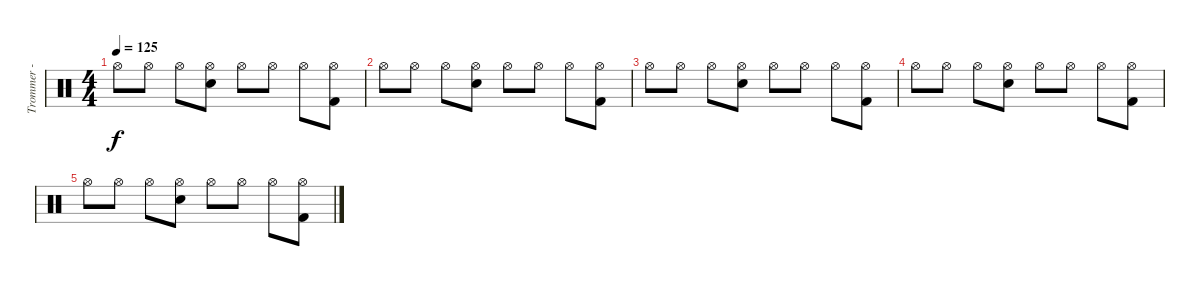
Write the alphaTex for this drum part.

\track ("Trommer - Alex" "Trommer - ") {instrument percussion}
\staff {score}
\articulation defaults
\ts (4 4)
\tempo 125
\clef neutral
\ks c "Hi-Hat (open)".8{dy f} "Hi-Hat (open)".8 "Hi-Hat (open)".8
("Hi-Hat (open)" "Snare (hit) 2").8 "Hi-Hat (open)".8 "Hi-Hat (open)".8 "Hi-Hat (open)".8 ("Hi-Hat (open)" "Kick (hit) 2").8 |
"Hi-Hat (open)".8 "Hi-Hat (open)".8 "Hi-Hat (open)".8 ("Hi-Hat (open)" "Snare (hit) 2").8 "Hi-Hat (open)".8 "Hi-Hat (open)".8 "Hi-Hat (open)".8 ("Hi-Hat (open)" "Kick (hit) 2").8 |
"Hi-Hat (open)".8 "Hi-Hat (open)".8 "Hi-Hat (open)".8 ("Hi-Hat (open)" "Snare (hit) 2").8 "Hi-Hat (open)".8 "Hi-Hat (open)".8 "Hi-Hat (open)".8 ("Hi-Hat (open)" "Kick (hit) 2").8 |
"Hi-Hat (open)".8 "Hi-Hat (open)".8 "Hi-Hat (open)".8 ("Hi-Hat (open)" "Snare (hit) 2").8 "Hi-Hat (open)".8 "Hi-Hat (open)".8 "Hi-Hat (open)".8 ("Hi-Hat (open)" "Kick (hit) 2").8 |
"Hi-Hat (open)".8 "Hi-Hat (open)".8 "Hi-Hat (open)".8 ("Hi-Hat (open)" "Snare (hit) 2").8 "Hi-Hat (open)".8 "Hi-Hat (open)".8 "Hi-Hat (open)".8 ("Hi-Hat (open)" "Kick (hit) 2").8
